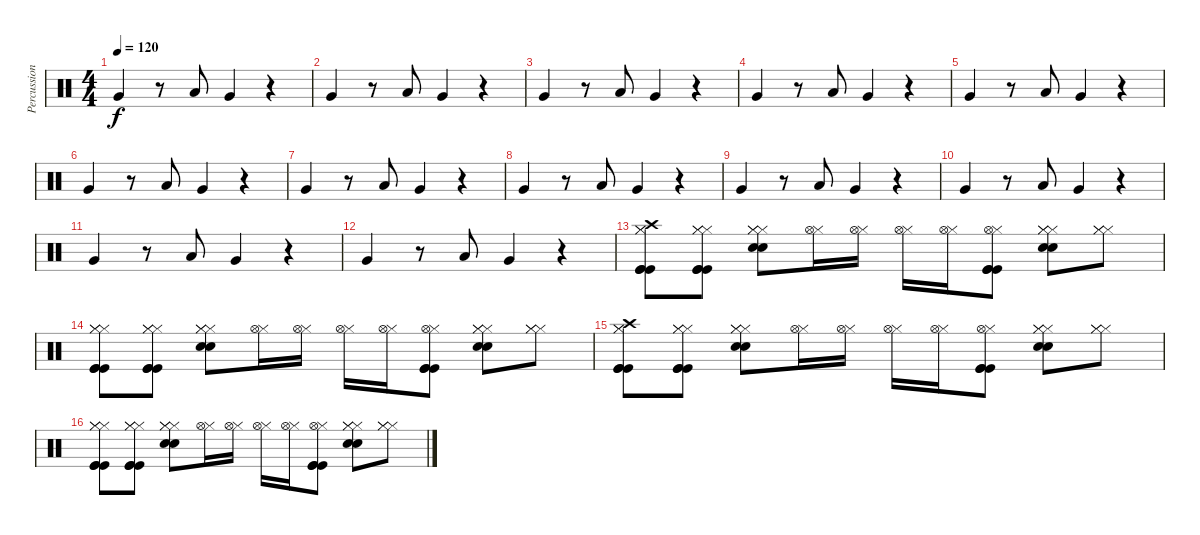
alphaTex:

\track ("Percussions" "Percussion") {instrument percussion}
\staff {score}
\articulation defaults
\ts (4 4)
\tempo 120
\clef neutral
\ks c "Very Low Tom (hit)".4{dy f}
r.8 "Low Floor Tom (hit)".8 "Very Low Tom (hit)".4 r.4 |
"Very Low Tom (hit)".4 r.8 "Low Floor Tom (hit)".8 "Very Low Tom (hit)".4 r.4 |
"Very Low Tom (hit)".4 r.8 "Low Floor Tom (hit)".8 "Very Low Tom (hit)".4 r.4 |
"Very Low Tom (hit)".4 r.8 "Low Floor Tom (hit)".8 "Very Low Tom (hit)".4 r.4 |
"Very Low Tom (hit)".4 r.8 "Low Floor Tom (hit)".8 "Very Low Tom (hit)".4 r.4 |
"Very Low Tom (hit)".4 r.8 "Low Floor Tom (hit)".8 "Very Low Tom (hit)".4 r.4 |
"Very Low Tom (hit)".4 r.8 "Low Floor Tom (hit)".8 "Very Low Tom (hit)".4 r.4 |
"Very Low Tom (hit)".4 r.8 "Low Floor Tom (hit)".8 "Very Low Tom (hit)".4 r.4 |
"Very Low Tom (hit)".4 r.8 "Low Floor Tom (hit)".8 "Very Low Tom (hit)".4 r.4 |
"Very Low Tom (hit)".4 r.8 "Low Floor Tom (hit)".8 "Very Low Tom (hit)".4 r.4 |
"Very Low Tom (hit)".4 r.8 "Low Floor Tom (hit)".8 "Very Low Tom (hit)".4 r.4 |
"Very Low Tom (hit)".4 r.8 "Low Floor Tom (hit)".8 "Very Low Tom (hit)".4 r.4 |
("Hi-Hat (closed)" "Hi-Hat (closed)" "Crash high (hit)" "Kick (hit)" "Kick (hit)" "Kick (hit)").8 ("Hi-Hat (closed)" "Hi-Hat (closed)" "Hi-Hat (closed)" "Kick (hit)" "Kick (hit)" "Kick (hit)").8 ("Hi-Hat (closed)" "Hi-Hat (closed)" "Hi-Hat (closed)" "Snare (hit) 2" "Snare (hit) 2").8 ("Hi-Hat (closed)" "Hi-Hat (open)").16 ("Hi-Hat (closed)" "Hi-Hat (open)").16 ("Hi-Hat (closed)" "Hi-Hat (open)").16 ("Hi-Hat (closed)" "Hi-Hat (open)").16 ("Hi-Hat (closed)" "Hi-Hat (open)" "Kick (hit)" "Kick (hit)" "Kick (hit)").8 ("Hi-Hat (closed)" "Hi-Hat (closed)" "Hi-Hat (closed)" "Snare (hit) 2" "Snare (hit) 2").8 ("Hi-Hat (closed)" "Hi-Hat (closed)" "Hi-Hat (closed)").8 |
("Hi-Hat (closed)" "Hi-Hat (closed)" "Hi-Hat (closed)" "Kick (hit)" "Kick (hit)" "Kick (hit)").8 ("Hi-Hat (closed)" "Hi-Hat (closed)" "Hi-Hat (closed)" "Kick (hit)" "Kick (hit)" "Kick (hit)").8 ("Hi-Hat (closed)" "Hi-Hat (closed)" "Hi-Hat (closed)" "Snare (hit) 2" "Snare (hit) 2").8 ("Hi-Hat (closed)" "Hi-Hat (open)").16 ("Hi-Hat (closed)" "Hi-Hat (open)").16 ("Hi-Hat (closed)" "Hi-Hat (open)").16 ("Hi-Hat (closed)" "Hi-Hat (open)").16 ("Hi-Hat (closed)" "Hi-Hat (open)" "Kick (hit)" "Kick (hit)" "Kick (hit)").8 ("Hi-Hat (closed)" "Hi-Hat (closed)" "Hi-Hat (closed)" "Snare (hit) 2" "Snare (hit) 2").8 ("Hi-Hat (closed)" "Hi-Hat (closed)" "Hi-Hat (closed)").8 |
("Hi-Hat (closed)" "Hi-Hat (closed)" "Crash high (hit)" "Kick (hit)" "Kick (hit)" "Kick (hit)").8 ("Hi-Hat (closed)" "Hi-Hat (closed)" "Hi-Hat (closed)" "Kick (hit)" "Kick (hit)" "Kick (hit)").8 ("Hi-Hat (closed)" "Hi-Hat (closed)" "Hi-Hat (closed)" "Snare (hit) 2" "Snare (hit) 2").8 ("Hi-Hat (closed)" "Hi-Hat (open)").16 ("Hi-Hat (closed)" "Hi-Hat (open)").16 ("Hi-Hat (closed)" "Hi-Hat (open)").16 ("Hi-Hat (closed)" "Hi-Hat (open)").16 ("Hi-Hat (closed)" "Hi-Hat (open)" "Kick (hit)" "Kick (hit)" "Kick (hit)").8 ("Hi-Hat (closed)" "Hi-Hat (closed)" "Hi-Hat (closed)" "Snare (hit) 2" "Snare (hit) 2").8 ("Hi-Hat (closed)" "Hi-Hat (closed)" "Hi-Hat (closed)").8 |
("Hi-Hat (closed)" "Hi-Hat (closed)" "Hi-Hat (closed)" "Kick (hit)" "Kick (hit)" "Kick (hit)").8 ("Hi-Hat (closed)" "Hi-Hat (closed)" "Hi-Hat (closed)" "Kick (hit)" "Kick (hit)" "Kick (hit)").8 ("Hi-Hat (closed)" "Hi-Hat (closed)" "Hi-Hat (closed)" "Snare (hit) 2" "Snare (hit) 2").8 ("Hi-Hat (closed)" "Hi-Hat (open)").16 ("Hi-Hat (closed)" "Hi-Hat (open)").16 ("Hi-Hat (closed)" "Hi-Hat (open)").16 ("Hi-Hat (closed)" "Hi-Hat (open)").16 ("Hi-Hat (closed)" "Hi-Hat (open)" "Kick (hit)" "Kick (hit)" "Kick (hit)").8 ("Hi-Hat (closed)" "Hi-Hat (closed)" "Hi-Hat (closed)" "Snare (hit) 2" "Snare (hit) 2").8 ("Hi-Hat (closed)" "Hi-Hat (closed)" "Hi-Hat (closed)").8
